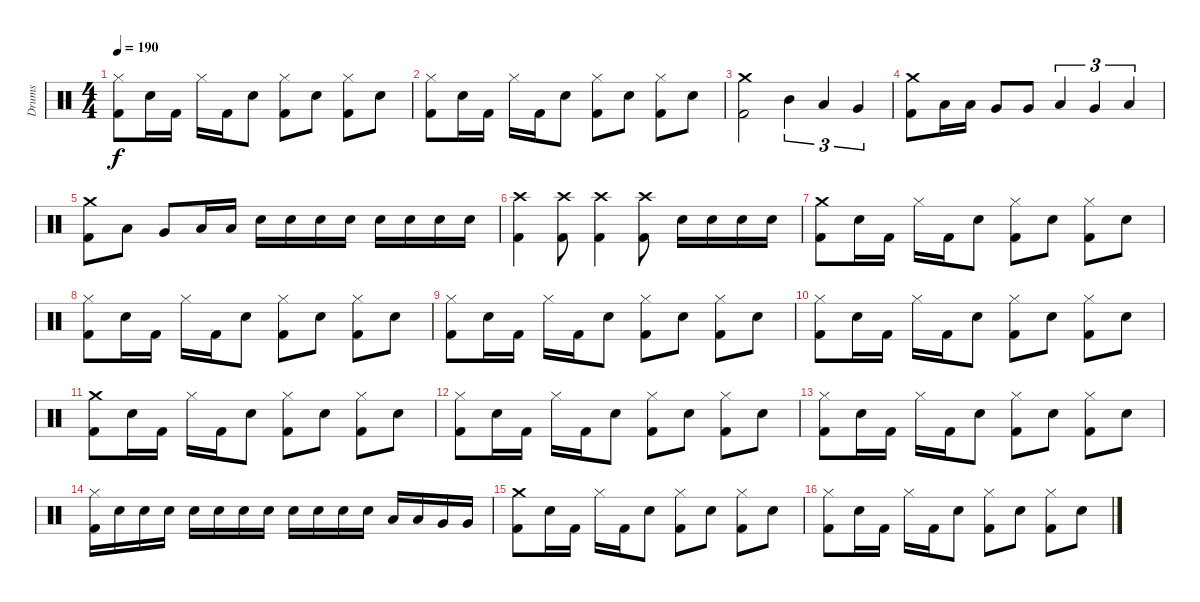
\track ("Drums" "Drums") {instrument percussion}
\staff {score}
\articulation defaults
\ts (4 4)
\tempo 190
\clef neutral
\ks c
("Hi-Hat (closed)" "Kick (hit) 2").8{dy f} "Electric Snare (hit)".16 "Kick (hit) 2".16 "Hi-Hat (closed)".16 "Kick (hit) 2".16 "Electric Snare (hit)".8 ("Hi-Hat (closed)" "Kick (hit) 2").8 "Electric Snare (hit)".8 ("Hi-Hat (closed)" "Kick (hit) 2").8 "Electric Snare (hit)".8 |
("Hi-Hat (closed)" "Kick (hit) 2").8 "Electric Snare (hit)".16 "Kick (hit) 2".16 "Hi-Hat (closed)".16 "Kick (hit) 2".16 "Electric Snare (hit)".8 ("Hi-Hat (closed)" "Kick (hit) 2").8 "Electric Snare (hit)".8 ("Hi-Hat (closed)" "Kick (hit) 2").8 "Electric Snare (hit)".8 |
("Crash medium (hit)" "Kick (hit) 2").2 "Mid Tom (hit)".4{tu (3 2)} "Low Tom (hit)".4{tu (3 2)} "Very Low Tom (hit)".4{tu (3 2)} |
("Crash medium (hit)" "Kick (hit) 2").8 "Low Tom (hit)".16 "Low Tom (hit)".16 "Very Low Tom (hit)".8 "Very Low Tom (hit)".8 "Low Tom (hit)".4{tu (3 2)} "Very Low Tom (hit)".4{tu (3 2)} "Low Floor Tom (hit)".4{tu (3 2)} |
("Crash medium (hit)" "Kick (hit) 2").8 "Low Tom (hit)".8 "Very Low Tom (hit)".8 "Low Tom (hit)".16 "Low Tom (hit)".16 "Electric Snare (hit)".16 "Electric Snare (hit)".16 "Electric Snare (hit)".16 "Electric Snare (hit)".16 "Electric Snare (hit)".16 "Electric Snare (hit)".16 "Electric Snare (hit)".16 "Electric Snare (hit)".16 |
("Crash high (hit)" "Kick (hit) 2").4 ("Crash high (hit)" "Kick (hit) 2").8 ("Crash high (hit)" "Kick (hit) 2").4 ("Crash high (hit)" "Kick (hit) 2").8 "Electric Snare (hit)".16 "Electric Snare (hit)".16 "Electric Snare (hit)".16 "Electric Snare (hit)".16 |
("Crash medium (hit)" "Kick (hit) 2").8 "Electric Snare (hit)".16 "Kick (hit) 2".16 "Hi-Hat (closed)".16 "Kick (hit) 2".16 "Electric Snare (hit)".8 ("Hi-Hat (closed)" "Kick (hit) 2").8 "Electric Snare (hit)".8 ("Hi-Hat (closed)" "Kick (hit) 2").8 "Electric Snare (hit)".8 |
("Hi-Hat (closed)" "Kick (hit) 2").8 "Electric Snare (hit)".16 "Kick (hit) 2".16 "Hi-Hat (closed)".16 "Kick (hit) 2".16 "Electric Snare (hit)".8 ("Hi-Hat (closed)" "Kick (hit) 2").8 "Electric Snare (hit)".8 ("Hi-Hat (closed)" "Kick (hit) 2").8 "Electric Snare (hit)".8 |
("Hi-Hat (closed)" "Kick (hit) 2").8 "Electric Snare (hit)".16 "Kick (hit) 2".16 "Hi-Hat (closed)".16 "Kick (hit) 2".16 "Electric Snare (hit)".8 ("Hi-Hat (closed)" "Kick (hit) 2").8 "Electric Snare (hit)".8 ("Hi-Hat (closed)" "Kick (hit) 2").8 "Electric Snare (hit)".8 |
("Hi-Hat (closed)" "Kick (hit) 2").8 "Electric Snare (hit)".16 "Kick (hit) 2".16 "Hi-Hat (closed)".16 "Kick (hit) 2".16 "Electric Snare (hit)".8 ("Hi-Hat (closed)" "Kick (hit) 2").8 "Electric Snare (hit)".8 ("Hi-Hat (closed)" "Kick (hit) 2").8 "Electric Snare (hit)".8 |
("Crash medium (hit)" "Kick (hit) 2").8 "Electric Snare (hit)".16 "Kick (hit) 2".16 "Hi-Hat (closed)".16 "Kick (hit) 2".16 "Electric Snare (hit)".8 ("Hi-Hat (closed)" "Kick (hit) 2").8 "Electric Snare (hit)".8 ("Hi-Hat (closed)" "Kick (hit) 2").8 "Electric Snare (hit)".8 |
("Hi-Hat (closed)" "Kick (hit) 2").8 "Electric Snare (hit)".16 "Kick (hit) 2".16 "Hi-Hat (closed)".16 "Kick (hit) 2".16 "Electric Snare (hit)".8 ("Hi-Hat (closed)" "Kick (hit) 2").8 "Electric Snare (hit)".8 ("Hi-Hat (closed)" "Kick (hit) 2").8 "Electric Snare (hit)".8 |
("Hi-Hat (closed)" "Kick (hit) 2").8 "Electric Snare (hit)".16 "Kick (hit) 2".16 "Hi-Hat (closed)".16 "Kick (hit) 2".16 "Electric Snare (hit)".8 ("Hi-Hat (closed)" "Kick (hit) 2").8 "Electric Snare (hit)".8 ("Hi-Hat (closed)" "Kick (hit) 2").8 "Electric Snare (hit)".8 |
("Hi-Hat (closed)" "Kick (hit) 2").16 "Electric Snare (hit)".16 "Electric Snare (hit)".16 "Electric Snare (hit)".16 "Electric Snare (hit)".16 "Electric Snare (hit)".16 "Electric Snare (hit)".16 "Electric Snare (hit)".16 "Electric Snare (hit)".16 "Electric Snare (hit)".16 "Electric Snare (hit)".16 "Electric Snare (hit)".16 "Low Tom (hit)".16 "Low Tom (hit)".16 "Very Low Tom (hit)".16 "Very Low Tom (hit)".16 |
("Crash medium (hit)" "Kick (hit) 2").8 "Electric Snare (hit)".16 "Kick (hit) 2".16 "Hi-Hat (closed)".16 "Kick (hit) 2".16 "Electric Snare (hit)".8 ("Hi-Hat (closed)" "Kick (hit) 2").8 "Electric Snare (hit)".8 ("Hi-Hat (closed)" "Kick (hit) 2").8 "Electric Snare (hit)".8 |
("Hi-Hat (closed)" "Kick (hit) 2").8 "Electric Snare (hit)".16 "Kick (hit) 2".16 "Hi-Hat (closed)".16 "Kick (hit) 2".16 "Electric Snare (hit)".8 ("Hi-Hat (closed)" "Kick (hit) 2").8 "Electric Snare (hit)".8 ("Hi-Hat (closed)" "Kick (hit) 2").8 "Electric Snare (hit)".8
